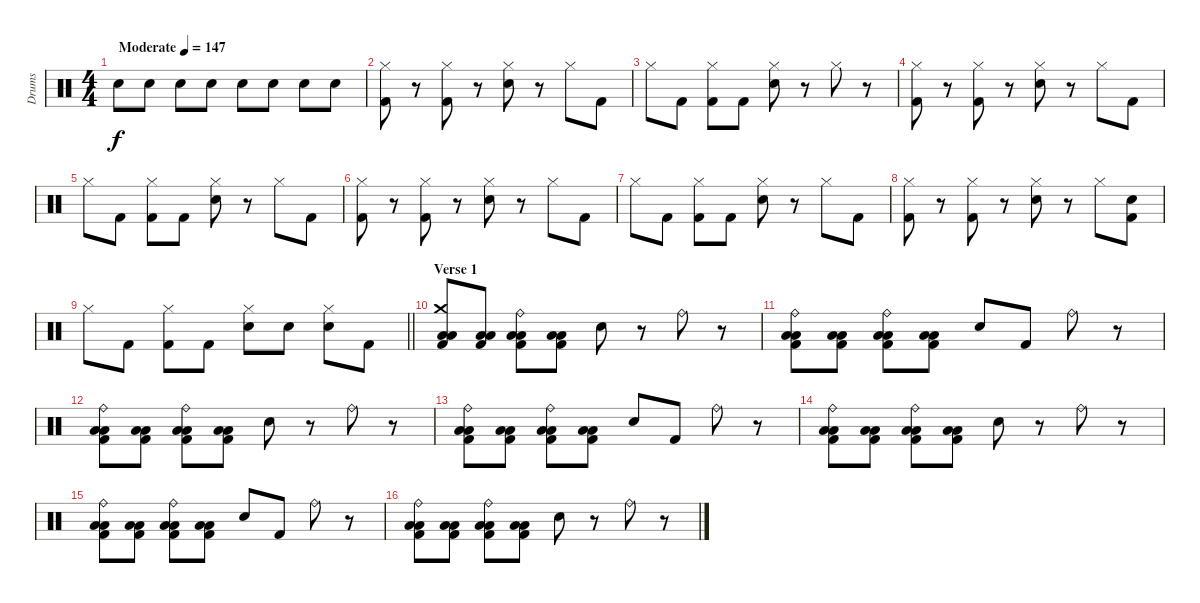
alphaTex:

\track ("Drums" "Drums") {instrument percussion}
\staff {score}
\articulation defaults
\ts (4 4)
\tempo (147 "Moderate")
\clef neutral
\ks c "Electric Snare (hit)".8{dy f} "Electric Snare (hit)".8 "Electric Snare (hit)".8 "Electric Snare (hit)".8 "Electric Snare (hit)".8 "Electric Snare (hit)".8 "Electric Snare (hit)".8 "Electric Snare (hit)".8
|
("Hi-Hat (closed)" "Kick (hit) 2").8 r.8 ("Hi-Hat (closed)" "Kick (hit) 2").8 r.8 ("Hi-Hat (closed)" "Electric Snare (hit)").8 r.8 "Hi-Hat (closed)".8 "Kick (hit) 2".8 |
"Hi-Hat (closed)".8 "Kick (hit) 2".8 ("Hi-Hat (closed)" "Kick (hit) 2").8 "Kick (hit) 2".8 ("Hi-Hat (closed)" "Electric Snare (hit)").8 r.8 "Hi-Hat (closed)".8 r.8 |
("Hi-Hat (closed)" "Kick (hit) 2").8 r.8 ("Hi-Hat (closed)" "Kick (hit) 2").8 r.8 ("Hi-Hat (closed)" "Electric Snare (hit)").8 r.8 "Hi-Hat (closed)".8 "Kick (hit) 2".8 |
"Hi-Hat (closed)".8 "Kick (hit) 2".8 ("Hi-Hat (closed)" "Kick (hit) 2").8 "Kick (hit) 2".8 ("Hi-Hat (closed)" "Electric Snare (hit)").8 r.8 "Hi-Hat (closed)".8 "Kick (hit) 2".8 |
("Hi-Hat (closed)" "Kick (hit) 2").8 r.8 ("Hi-Hat (closed)" "Kick (hit) 2").8 r.8 ("Hi-Hat (closed)" "Electric Snare (hit)").8 r.8 "Hi-Hat (closed)".8 "Kick (hit) 2".8 |
"Hi-Hat (closed)".8 "Kick (hit) 2".8 ("Hi-Hat (closed)" "Kick (hit) 2").8 "Kick (hit) 2".8 ("Hi-Hat (closed)" "Electric Snare (hit)").8 r.8 "Hi-Hat (closed)".8 "Kick (hit) 2".8 |
("Hi-Hat (closed)" "Kick (hit) 2").8 r.8 ("Hi-Hat (closed)" "Kick (hit) 2").8 r.8 ("Hi-Hat (closed)" "Electric Snare (hit)").8 r.8 "Hi-Hat (closed)".8 ("Electric Snare (hit)" "Kick (hit) 2").8 |
\barLineRight lightlight "Hi-Hat (closed)".8 "Kick (hit) 2".8
("Hi-Hat (closed)" "Kick (hit) 2").8 "Kick (hit) 2".8 ("Hi-Hat (closed)" "Electric Snare (hit)").8 "Electric Snare (hit)".8 ("Hi-Hat (closed)" "Electric Snare (hit)").8 "Kick (hit) 2".8 |
\section ("" "Verse 1")
("Crash medium (hit)" "Low Tom (hit)" "Low Floor Tom (hit)" "Kick (hit) 2").8 ("Low Tom (hit)" "Low Floor Tom (hit)" "Kick (hit) 2").8 ("Ride (bell)" "Low Tom (hit)" "Low Floor Tom (hit)" "Kick (hit) 2").8 ("Low Tom (hit)" "Low Floor Tom (hit)" "Kick (hit) 2").8 "Electric Snare (hit)".8 r.8 "Ride (bell)".8 r.8 |
("Ride (bell)" "Low Tom (hit)" "Low Floor Tom (hit)" "Kick (hit) 2").8 ("Low Tom (hit)" "Low Floor Tom (hit)" "Kick (hit) 2").8 ("Ride (bell)" "Low Tom (hit)" "Low Floor Tom (hit)" "Kick (hit) 2").8 ("Low Tom (hit)" "Low Floor Tom (hit)" "Kick (hit) 2").8 "Electric Snare (hit)".8 "Kick (hit) 2".8 "Ride (bell)".8 r.8 |
("Ride (bell)" "Low Tom (hit)" "Low Floor Tom (hit)" "Kick (hit) 2").8 ("Low Tom (hit)" "Low Floor Tom (hit)" "Kick (hit) 2").8 ("Ride (bell)" "Low Tom (hit)" "Low Floor Tom (hit)" "Kick (hit) 2").8 ("Low Tom (hit)" "Low Floor Tom (hit)" "Kick (hit) 2").8 "Electric Snare (hit)".8 r.8 "Ride (bell)".8 r.8 |
("Ride (bell)" "Low Tom (hit)" "Low Floor Tom (hit)" "Kick (hit) 2").8 ("Low Tom (hit)" "Low Floor Tom (hit)" "Kick (hit) 2").8 ("Ride (bell)" "Low Tom (hit)" "Low Floor Tom (hit)" "Kick (hit) 2").8 ("Low Tom (hit)" "Low Floor Tom (hit)" "Kick (hit) 2").8 "Electric Snare (hit)".8 "Kick (hit) 2".8 "Ride (bell)".8 r.8 |
("Ride (bell)" "Low Tom (hit)" "Low Floor Tom (hit)" "Kick (hit) 2").8 ("Low Tom (hit)" "Low Floor Tom (hit)" "Kick (hit) 2").8 ("Ride (bell)" "Low Tom (hit)" "Low Floor Tom (hit)" "Kick (hit) 2").8 ("Low Tom (hit)" "Low Floor Tom (hit)" "Kick (hit) 2").8 "Electric Snare (hit)".8 r.8 "Ride (bell)".8 r.8 |
("Ride (bell)" "Low Tom (hit)" "Low Floor Tom (hit)" "Kick (hit) 2").8 ("Low Tom (hit)" "Low Floor Tom (hit)" "Kick (hit) 2").8 ("Ride (bell)" "Low Tom (hit)" "Low Floor Tom (hit)" "Kick (hit) 2").8 ("Low Tom (hit)" "Low Floor Tom (hit)" "Kick (hit) 2").8 "Electric Snare (hit)".8 "Kick (hit) 2".8 "Ride (bell)".8 r.8 |
("Ride (bell)" "Low Tom (hit)" "Low Floor Tom (hit)" "Kick (hit) 2").8 ("Low Tom (hit)" "Low Floor Tom (hit)" "Kick (hit) 2").8 ("Ride (bell)" "Low Tom (hit)" "Low Floor Tom (hit)" "Kick (hit) 2").8 ("Low Tom (hit)" "Low Floor Tom (hit)" "Kick (hit) 2").8 "Electric Snare (hit)".8 r.8 "Ride (bell)".8 r.8
